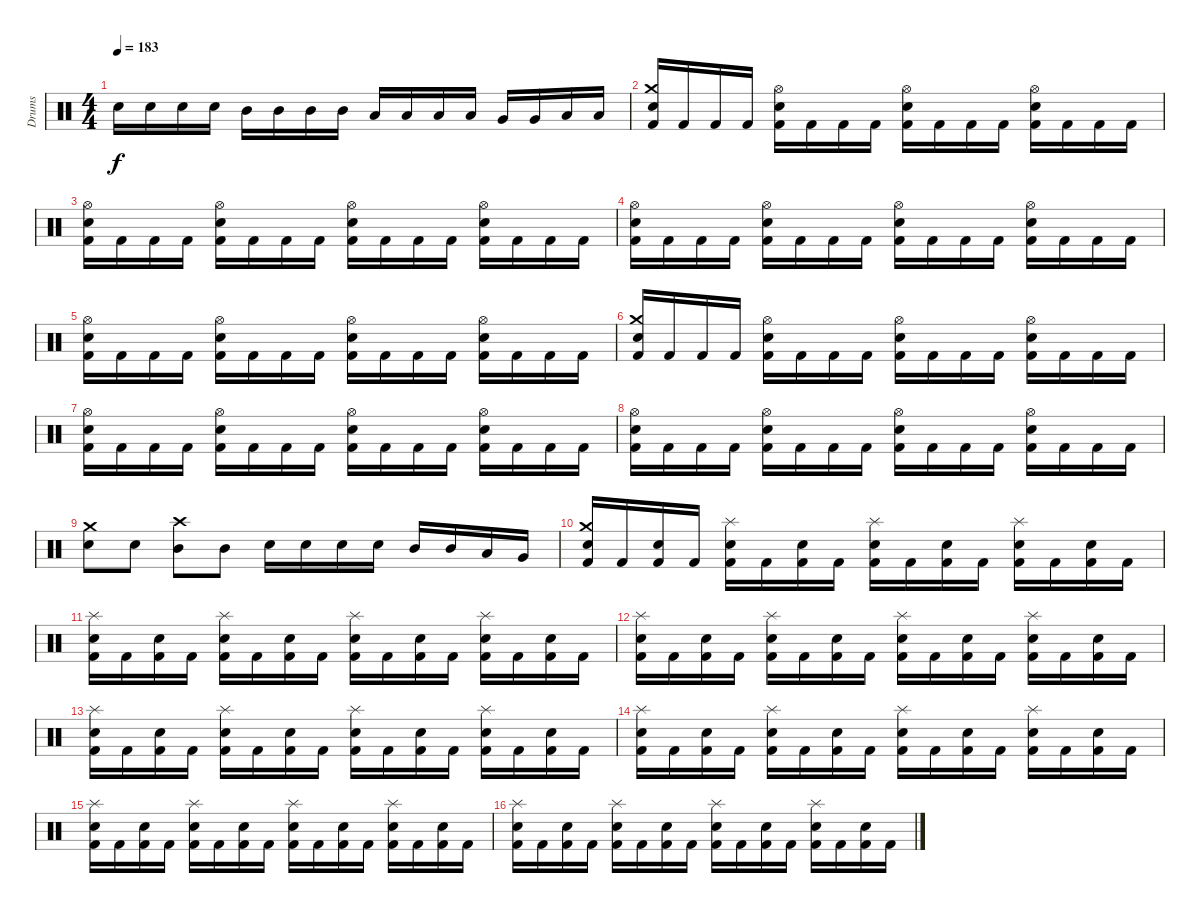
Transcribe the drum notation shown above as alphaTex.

\track ("Drums" "Drums") {instrument percussion}
\staff {score}
\articulation defaults
\ts (4 4)
\tempo 183
\clef neutral
\ks c "Electric Snare (hit)".16{dy f} "Electric Snare (hit)".16 "Electric Snare (hit)".16 "Electric Snare (hit)".16 "Mid Tom (hit)".16 "Mid Tom (hit)".16 "Mid Tom (hit)".16 "Mid Tom (hit)".16 "Low Tom (hit)".16 "Low Tom (hit)".16 "Low Tom (hit)".16 "Low Tom (hit)".16 "Very Low Tom (hit)".16 "Very Low Tom (hit)".16 "Low Floor Tom (hit)".16 "Low Floor Tom (hit)".16
|
("Crash medium (hit)" "Electric Snare (hit)" "Kick (hit) 2").16 "Kick (hit) 2".16 "Kick (hit) 2".16 "Kick (hit) 2".16 ("Hi-Hat (open)" "Electric Snare (hit)" "Kick (hit) 2").16 "Kick (hit) 2".16 "Kick (hit) 2".16 "Kick (hit) 2".16 ("Hi-Hat (open)" "Electric Snare (hit)" "Kick (hit) 2").16 "Kick (hit) 2".16 "Kick (hit) 2".16 "Kick (hit) 2".16 ("Hi-Hat (open)" "Electric Snare (hit)" "Kick (hit) 2").16 "Kick (hit) 2".16 "Kick (hit) 2".16 "Kick (hit) 2".16 |
("Hi-Hat (open)" "Electric Snare (hit)" "Kick (hit) 2").16 "Kick (hit) 2".16 "Kick (hit) 2".16 "Kick (hit) 2".16 ("Hi-Hat (open)" "Electric Snare (hit)" "Kick (hit) 2").16 "Kick (hit) 2".16 "Kick (hit) 2".16 "Kick (hit) 2".16 ("Hi-Hat (open)" "Electric Snare (hit)" "Kick (hit) 2").16 "Kick (hit) 2".16 "Kick (hit) 2".16 "Kick (hit) 2".16 ("Hi-Hat (open)" "Electric Snare (hit)" "Kick (hit) 2").16 "Kick (hit) 2".16 "Kick (hit) 2".16 "Kick (hit) 2".16 |
("Hi-Hat (open)" "Electric Snare (hit)" "Kick (hit) 2").16 "Kick (hit) 2".16 "Kick (hit) 2".16 "Kick (hit) 2".16 ("Hi-Hat (open)" "Electric Snare (hit)" "Kick (hit) 2").16 "Kick (hit) 2".16 "Kick (hit) 2".16 "Kick (hit) 2".16 ("Hi-Hat (open)" "Electric Snare (hit)" "Kick (hit) 2").16 "Kick (hit) 2".16 "Kick (hit) 2".16 "Kick (hit) 2".16 ("Hi-Hat (open)" "Electric Snare (hit)" "Kick (hit) 2").16 "Kick (hit) 2".16 "Kick (hit) 2".16 "Kick (hit) 2".16 |
("Hi-Hat (open)" "Electric Snare (hit)" "Kick (hit) 2").16 "Kick (hit) 2".16 "Kick (hit) 2".16 "Kick (hit) 2".16 ("Hi-Hat (open)" "Electric Snare (hit)" "Kick (hit) 2").16 "Kick (hit) 2".16 "Kick (hit) 2".16 "Kick (hit) 2".16 ("Hi-Hat (open)" "Electric Snare (hit)" "Kick (hit) 2").16 "Kick (hit) 2".16 "Kick (hit) 2".16 "Kick (hit) 2".16 ("Hi-Hat (open)" "Electric Snare (hit)" "Kick (hit) 2").16 "Kick (hit) 2".16 "Kick (hit) 2".16 "Kick (hit) 2".16 |
("Crash medium (hit)" "Electric Snare (hit)" "Kick (hit) 2").16 "Kick (hit) 2".16 "Kick (hit) 2".16 "Kick (hit) 2".16 ("Hi-Hat (open)" "Electric Snare (hit)" "Kick (hit) 2").16 "Kick (hit) 2".16 "Kick (hit) 2".16 "Kick (hit) 2".16 ("Hi-Hat (open)" "Electric Snare (hit)" "Kick (hit) 2").16 "Kick (hit) 2".16 "Kick (hit) 2".16 "Kick (hit) 2".16 ("Hi-Hat (open)" "Electric Snare (hit)" "Kick (hit) 2").16 "Kick (hit) 2".16 "Kick (hit) 2".16 "Kick (hit) 2".16 |
("Hi-Hat (open)" "Electric Snare (hit)" "Kick (hit) 2").16 "Kick (hit) 2".16 "Kick (hit) 2".16 "Kick (hit) 2".16 ("Hi-Hat (open)" "Electric Snare (hit)" "Kick (hit) 2").16 "Kick (hit) 2".16 "Kick (hit) 2".16 "Kick (hit) 2".16 ("Hi-Hat (open)" "Electric Snare (hit)" "Kick (hit) 2").16 "Kick (hit) 2".16 "Kick (hit) 2".16 "Kick (hit) 2".16 ("Hi-Hat (open)" "Electric Snare (hit)" "Kick (hit) 2").16 "Kick (hit) 2".16 "Kick (hit) 2".16 "Kick (hit) 2".16 |
("Hi-Hat (open)" "Electric Snare (hit)" "Kick (hit) 2").16 "Kick (hit) 2".16 "Kick (hit) 2".16 "Kick (hit) 2".16 ("Hi-Hat (open)" "Electric Snare (hit)" "Kick (hit) 2").16 "Kick (hit) 2".16 "Kick (hit) 2".16 "Kick (hit) 2".16 ("Hi-Hat (open)" "Electric Snare (hit)" "Kick (hit) 2").16 "Kick (hit) 2".16 "Kick (hit) 2".16 "Kick (hit) 2".16 ("Hi-Hat (open)" "Electric Snare (hit)" "Kick (hit) 2").16 "Kick (hit) 2".16 "Kick (hit) 2".16 "Kick (hit) 2".16 |
("Crash medium (hit)" "Electric Snare (hit)").8 "Electric Snare (hit)".8 ("Crash high (hit)" "Mid Tom (hit)").8 "Mid Tom (hit)".8 "Electric Snare (hit)".16 "Electric Snare (hit)".16 "Electric Snare (hit)".16 "Electric Snare (hit)".16 "Mid Tom (hit)".16 "Mid Tom (hit)".16 "Low Tom (hit)".16 "Very Low Tom (hit)".16 |
("Crash medium (hit)" "Electric Snare (hit)" "Kick (hit) 2").16 "Kick (hit) 2".16 ("Electric Snare (hit)" "Kick (hit) 2").16 "Kick (hit) 2".16 ("Splash (hit)" "Electric Snare (hit)" "Kick (hit) 2").16 "Kick (hit) 2".16 ("Electric Snare (hit)" "Kick (hit) 2").16 "Kick (hit) 2".16 ("Splash (hit)" "Electric Snare (hit)" "Kick (hit) 2").16 "Kick (hit) 2".16 ("Electric Snare (hit)" "Kick (hit) 2").16 "Kick (hit) 2".16 ("Splash (hit)" "Electric Snare (hit)" "Kick (hit) 2").16 "Kick (hit) 2".16 ("Electric Snare (hit)" "Kick (hit) 2").16 "Kick (hit) 2".16 |
("Splash (hit)" "Electric Snare (hit)" "Kick (hit) 2").16 "Kick (hit) 2".16 ("Electric Snare (hit)" "Kick (hit) 2").16 "Kick (hit) 2".16 ("Splash (hit)" "Electric Snare (hit)" "Kick (hit) 2").16 "Kick (hit) 2".16 ("Electric Snare (hit)" "Kick (hit) 2").16 "Kick (hit) 2".16 ("Splash (hit)" "Electric Snare (hit)" "Kick (hit) 2").16 "Kick (hit) 2".16 ("Electric Snare (hit)" "Kick (hit) 2").16 "Kick (hit) 2".16 ("Splash (hit)" "Electric Snare (hit)" "Kick (hit) 2").16 "Kick (hit) 2".16 ("Electric Snare (hit)" "Kick (hit) 2").16 "Kick (hit) 2".16 |
("Splash (hit)" "Electric Snare (hit)" "Kick (hit) 2").16 "Kick (hit) 2".16 ("Electric Snare (hit)" "Kick (hit) 2").16 "Kick (hit) 2".16 ("Splash (hit)" "Electric Snare (hit)" "Kick (hit) 2").16 "Kick (hit) 2".16 ("Electric Snare (hit)" "Kick (hit) 2").16 "Kick (hit) 2".16 ("Splash (hit)" "Electric Snare (hit)" "Kick (hit) 2").16 "Kick (hit) 2".16 ("Electric Snare (hit)" "Kick (hit) 2").16 "Kick (hit) 2".16 ("Splash (hit)" "Electric Snare (hit)" "Kick (hit) 2").16 "Kick (hit) 2".16 ("Electric Snare (hit)" "Kick (hit) 2").16 "Kick (hit) 2".16 |
("Splash (hit)" "Electric Snare (hit)" "Kick (hit) 2").16 "Kick (hit) 2".16 ("Electric Snare (hit)" "Kick (hit) 2").16 "Kick (hit) 2".16 ("Splash (hit)" "Electric Snare (hit)" "Kick (hit) 2").16 "Kick (hit) 2".16 ("Electric Snare (hit)" "Kick (hit) 2").16 "Kick (hit) 2".16 ("Splash (hit)" "Electric Snare (hit)" "Kick (hit) 2").16 "Kick (hit) 2".16 ("Electric Snare (hit)" "Kick (hit) 2").16 "Kick (hit) 2".16 ("Splash (hit)" "Electric Snare (hit)" "Kick (hit) 2").16 "Kick (hit) 2".16 ("Electric Snare (hit)" "Kick (hit) 2").16 "Kick (hit) 2".16 |
("Splash (hit)" "Electric Snare (hit)" "Kick (hit) 2").16 "Kick (hit) 2".16 ("Electric Snare (hit)" "Kick (hit) 2").16 "Kick (hit) 2".16 ("Splash (hit)" "Electric Snare (hit)" "Kick (hit) 2").16 "Kick (hit) 2".16 ("Electric Snare (hit)" "Kick (hit) 2").16 "Kick (hit) 2".16 ("Splash (hit)" "Electric Snare (hit)" "Kick (hit) 2").16 "Kick (hit) 2".16 ("Electric Snare (hit)" "Kick (hit) 2").16 "Kick (hit) 2".16 ("Splash (hit)" "Electric Snare (hit)" "Kick (hit) 2").16 "Kick (hit) 2".16 ("Electric Snare (hit)" "Kick (hit) 2").16 "Kick (hit) 2".16 |
("Splash (hit)" "Electric Snare (hit)" "Kick (hit) 2").16 "Kick (hit) 2".16 ("Electric Snare (hit)" "Kick (hit) 2").16 "Kick (hit) 2".16 ("Splash (hit)" "Electric Snare (hit)" "Kick (hit) 2").16 "Kick (hit) 2".16 ("Electric Snare (hit)" "Kick (hit) 2").16 "Kick (hit) 2".16 ("Splash (hit)" "Electric Snare (hit)" "Kick (hit) 2").16 "Kick (hit) 2".16 ("Electric Snare (hit)" "Kick (hit) 2").16 "Kick (hit) 2".16 ("Splash (hit)" "Electric Snare (hit)" "Kick (hit) 2").16 "Kick (hit) 2".16 ("Electric Snare (hit)" "Kick (hit) 2").16 "Kick (hit) 2".16 |
("Splash (hit)" "Electric Snare (hit)" "Kick (hit) 2").16 "Kick (hit) 2".16 ("Electric Snare (hit)" "Kick (hit) 2").16 "Kick (hit) 2".16 ("Splash (hit)" "Electric Snare (hit)" "Kick (hit) 2").16 "Kick (hit) 2".16 ("Electric Snare (hit)" "Kick (hit) 2").16 "Kick (hit) 2".16 ("Splash (hit)" "Electric Snare (hit)" "Kick (hit) 2").16 "Kick (hit) 2".16 ("Electric Snare (hit)" "Kick (hit) 2").16 "Kick (hit) 2".16 ("Splash (hit)" "Electric Snare (hit)" "Kick (hit) 2").16 "Kick (hit) 2".16 ("Electric Snare (hit)" "Kick (hit) 2").16 "Kick (hit) 2".16
